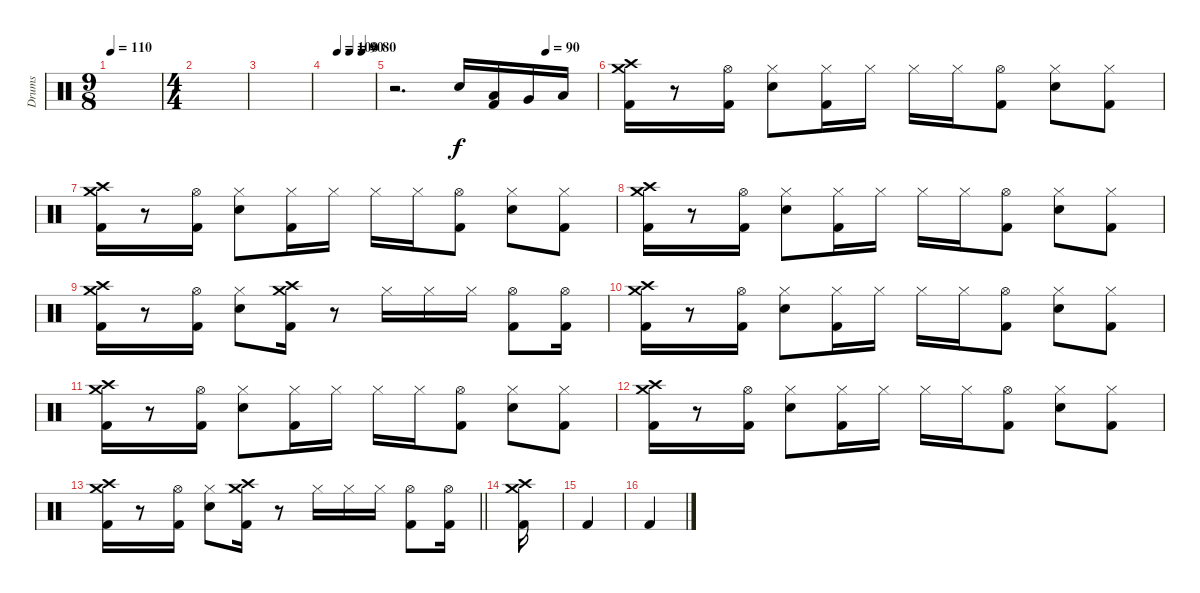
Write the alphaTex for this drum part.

\track ("Drums" "Drums") {instrument percussion}
\staff {score}
\articulation defaults
\ts (9 8)
\tempo 110
\clef neutral
\ks c
|
\ts (4 4)
|
|
\tempo (100 0.25)
\tempo (90 0.5)
\tempo (80 0.75)
|
\tempo (90 0.75)
r.2{d} "Electric Snare (hit)".16 ("Low Tom (hit)" "Kick (hit) 2").16 "Very Low Tom (hit)".16 "Low Floor Tom (hit)".16 |
("Crash high (hit)" "Crash medium (hit)" "Kick (hit) 2").16 r.8 ("Hi-Hat (open)" "Kick (hit) 2").16 ("Hi-Hat (closed)" "Electric Snare (hit)").8 ("Hi-Hat (closed)" "Kick (hit) 2").16 "Hi-Hat (closed)".16 "Hi-Hat (closed)".16 "Hi-Hat (closed)".16 ("Hi-Hat (open)" "Kick (hit) 2").8 ("Hi-Hat (closed)" "Electric Snare (hit)").8 ("Hi-Hat (closed)" "Kick (hit) 2").8 |
("Crash high (hit)" "Crash medium (hit)" "Kick (hit) 2").16 r.8 ("Hi-Hat (open)" "Kick (hit) 2").16 ("Hi-Hat (closed)" "Electric Snare (hit)").8 ("Hi-Hat (closed)" "Kick (hit) 2").16 "Hi-Hat (closed)".16 "Hi-Hat (closed)".16 "Hi-Hat (closed)".16 ("Hi-Hat (open)" "Kick (hit) 2").8 ("Hi-Hat (closed)" "Electric Snare (hit)").8 ("Hi-Hat (closed)" "Kick (hit) 2").8 |
("Crash high (hit)" "Crash medium (hit)" "Kick (hit) 2").16 r.8 ("Hi-Hat (open)" "Kick (hit) 2").16 ("Hi-Hat (closed)" "Electric Snare (hit)").8 ("Hi-Hat (closed)" "Kick (hit) 2").16 "Hi-Hat (closed)".16 "Hi-Hat (closed)".16 "Hi-Hat (closed)".16 ("Hi-Hat (open)" "Kick (hit) 2").8 ("Hi-Hat (closed)" "Electric Snare (hit)").8 ("Hi-Hat (closed)" "Kick (hit) 2").8 |
("Crash high (hit)" "Crash medium (hit)" "Kick (hit) 2").16 r.8 ("Hi-Hat (open)" "Kick (hit) 2").16 ("Hi-Hat (closed)" "Electric Snare (hit)").8 ("Crash high (hit)" "Crash medium (hit)" "Kick (hit) 2").16 r.8 "Hi-Hat (closed)".16 "Hi-Hat (closed)".16 "Hi-Hat (closed)".16 ("Hi-Hat (open)" "Kick (hit) 2").8 ("Hi-Hat (open)" "Kick (hit) 2").16 |
("Crash high (hit)" "Crash medium (hit)" "Kick (hit) 2").16 r.8 ("Hi-Hat (open)" "Kick (hit) 2").16 ("Hi-Hat (closed)" "Electric Snare (hit)").8 ("Hi-Hat (closed)" "Kick (hit) 2").16 "Hi-Hat (closed)".16 "Hi-Hat (closed)".16 "Hi-Hat (closed)".16 ("Hi-Hat (open)" "Kick (hit) 2").8 ("Hi-Hat (closed)" "Electric Snare (hit)").8 ("Hi-Hat (closed)" "Kick (hit) 2").8 |
("Crash high (hit)" "Crash medium (hit)" "Kick (hit) 2").16 r.8 ("Hi-Hat (open)" "Kick (hit) 2").16 ("Hi-Hat (closed)" "Electric Snare (hit)").8 ("Hi-Hat (closed)" "Kick (hit) 2").16 "Hi-Hat (closed)".16 "Hi-Hat (closed)".16 "Hi-Hat (closed)".16 ("Hi-Hat (open)" "Kick (hit) 2").8 ("Hi-Hat (closed)" "Electric Snare (hit)").8 ("Hi-Hat (closed)" "Kick (hit) 2").8 |
("Crash high (hit)" "Crash medium (hit)" "Kick (hit) 2").16 r.8 ("Hi-Hat (open)" "Kick (hit) 2").16 ("Hi-Hat (closed)" "Electric Snare (hit)").8 ("Hi-Hat (closed)" "Kick (hit) 2").16 "Hi-Hat (closed)".16 "Hi-Hat (closed)".16 "Hi-Hat (closed)".16 ("Hi-Hat (open)" "Kick (hit) 2").8 ("Hi-Hat (closed)" "Electric Snare (hit)").8 ("Hi-Hat (closed)" "Kick (hit) 2").8 |
\barLineRight lightlight
("Crash high (hit)" "Crash medium (hit)" "Kick (hit) 2").16 r.8 ("Hi-Hat (open)" "Kick (hit) 2").16 ("Hi-Hat (closed)" "Electric Snare (hit)").8 ("Crash high (hit)" "Crash medium (hit)" "Kick (hit) 2").16 r.8 "Hi-Hat (closed)".16 "Hi-Hat (closed)".16 "Hi-Hat (closed)".16 ("Hi-Hat (open)" "Kick (hit) 2").8 ("Hi-Hat (open)" "Kick (hit) 2").16 |
("Crash high (hit)" "Crash medium (hit)" "Kick (hit) 2").16 |
"Kick (hit) 2".4 |
"Kick (hit) 2".4
